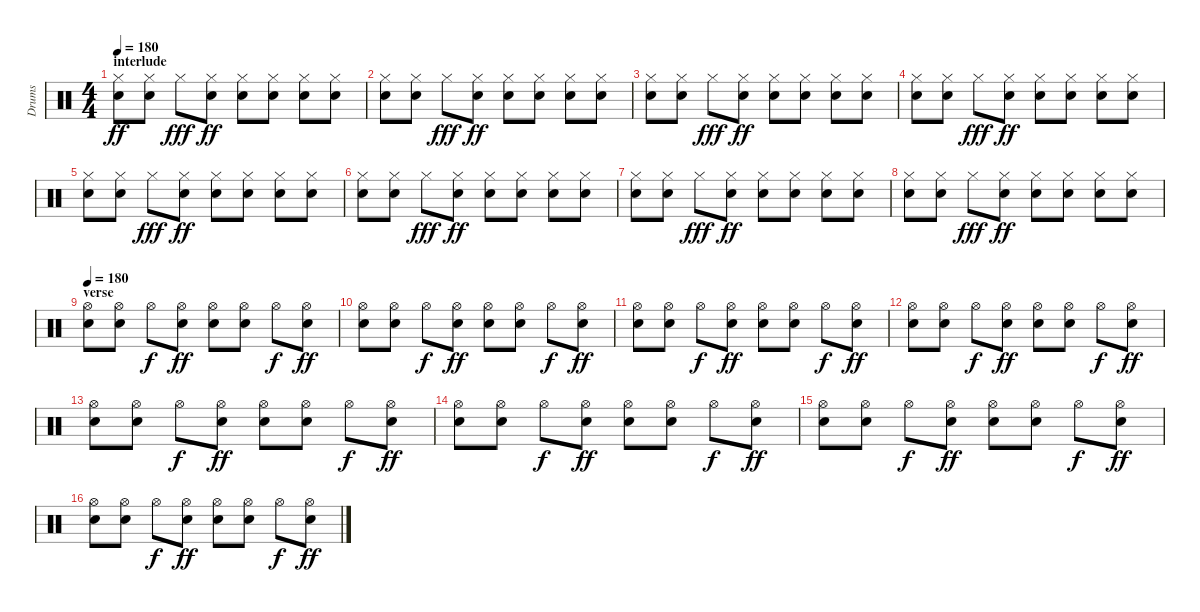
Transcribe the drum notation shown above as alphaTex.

\track ("Drums" "Drums") {instrument percussion}
\staff {score}
\articulation defaults
\ts (4 4)
\section ("" "interlude")
\tempo 180
\clef neutral
\ks c
("Hi-Hat (closed)" "Electric Snare (hit)").8{dy ff} ("Hi-Hat (closed)" "Electric Snare (hit)").8 "Hi-Hat (closed)".8{dy fff} ("Hi-Hat (closed)" "Electric Snare (hit)").8{dy ff} ("Hi-Hat (closed)" "Electric Snare (hit)").8 ("Hi-Hat (closed)" "Electric Snare (hit)").8 ("Hi-Hat (closed)" "Electric Snare (hit)").8 ("Hi-Hat (closed)" "Electric Snare (hit)").8 |
("Hi-Hat (closed)" "Electric Snare (hit)").8 ("Hi-Hat (closed)" "Electric Snare (hit)").8 "Hi-Hat (closed)".8{dy fff} ("Hi-Hat (closed)" "Electric Snare (hit)").8{dy ff} ("Hi-Hat (closed)" "Electric Snare (hit)").8 ("Hi-Hat (closed)" "Electric Snare (hit)").8 ("Hi-Hat (closed)" "Electric Snare (hit)").8 ("Hi-Hat (closed)" "Electric Snare (hit)").8 |
("Hi-Hat (closed)" "Electric Snare (hit)").8 ("Hi-Hat (closed)" "Electric Snare (hit)").8 "Hi-Hat (closed)".8{dy fff} ("Hi-Hat (closed)" "Electric Snare (hit)").8{dy ff} ("Hi-Hat (closed)" "Electric Snare (hit)").8 ("Hi-Hat (closed)" "Electric Snare (hit)").8 ("Hi-Hat (closed)" "Electric Snare (hit)").8 ("Hi-Hat (closed)" "Electric Snare (hit)").8 |
("Hi-Hat (closed)" "Electric Snare (hit)").8 ("Hi-Hat (closed)" "Electric Snare (hit)").8 "Hi-Hat (closed)".8{dy fff} ("Hi-Hat (closed)" "Electric Snare (hit)").8{dy ff} ("Hi-Hat (closed)" "Electric Snare (hit)").8 ("Hi-Hat (closed)" "Electric Snare (hit)").8 ("Hi-Hat (closed)" "Electric Snare (hit)").8 ("Hi-Hat (closed)" "Electric Snare (hit)").8 |
("Hi-Hat (closed)" "Electric Snare (hit)").8 ("Hi-Hat (closed)" "Electric Snare (hit)").8 "Hi-Hat (closed)".8{dy fff} ("Hi-Hat (closed)" "Electric Snare (hit)").8{dy ff} ("Hi-Hat (closed)" "Electric Snare (hit)").8 ("Hi-Hat (closed)" "Electric Snare (hit)").8 ("Hi-Hat (closed)" "Electric Snare (hit)").8 ("Hi-Hat (closed)" "Electric Snare (hit)").8 |
("Hi-Hat (closed)" "Electric Snare (hit)").8 ("Hi-Hat (closed)" "Electric Snare (hit)").8 "Hi-Hat (closed)".8{dy fff} ("Hi-Hat (closed)" "Electric Snare (hit)").8{dy ff} ("Hi-Hat (closed)" "Electric Snare (hit)").8 ("Hi-Hat (closed)" "Electric Snare (hit)").8 ("Hi-Hat (closed)" "Electric Snare (hit)").8 ("Hi-Hat (closed)" "Electric Snare (hit)").8 |
("Hi-Hat (closed)" "Electric Snare (hit)").8 ("Hi-Hat (closed)" "Electric Snare (hit)").8 "Hi-Hat (closed)".8{dy fff} ("Hi-Hat (closed)" "Electric Snare (hit)").8{dy ff} ("Hi-Hat (closed)" "Electric Snare (hit)").8 ("Hi-Hat (closed)" "Electric Snare (hit)").8 ("Hi-Hat (closed)" "Electric Snare (hit)").8 ("Hi-Hat (closed)" "Electric Snare (hit)").8 |
("Hi-Hat (closed)" "Electric Snare (hit)").8 ("Hi-Hat (closed)" "Electric Snare (hit)").8 "Hi-Hat (closed)".8{dy fff} ("Hi-Hat (closed)" "Electric Snare (hit)").8{dy ff} ("Hi-Hat (closed)" "Electric Snare (hit)").8 ("Hi-Hat (closed)" "Electric Snare (hit)").8 ("Hi-Hat (closed)" "Electric Snare (hit)").8 ("Hi-Hat (closed)" "Electric Snare (hit)").8 |
\section ("" "verse")
\tempo 180
("Hi-Hat (open)" "Electric Snare (hit)").8 ("Hi-Hat (open)" "Electric Snare (hit)").8 "Hi-Hat (open)".8{dy f} ("Hi-Hat (open)" "Electric Snare (hit)").8{dy ff} ("Hi-Hat (open)" "Electric Snare (hit)").8 ("Hi-Hat (open)" "Electric Snare (hit)").8 "Hi-Hat (open)".8{dy f} ("Hi-Hat (open)" "Electric Snare (hit)").8{dy ff} |
("Hi-Hat (open)" "Electric Snare (hit)").8 ("Hi-Hat (open)" "Electric Snare (hit)").8 "Hi-Hat (open)".8{dy f} ("Hi-Hat (open)" "Electric Snare (hit)").8{dy ff} ("Hi-Hat (open)" "Electric Snare (hit)").8 ("Hi-Hat (open)" "Electric Snare (hit)").8 "Hi-Hat (open)".8{dy f} ("Hi-Hat (open)" "Electric Snare (hit)").8{dy ff} |
("Hi-Hat (open)" "Electric Snare (hit)").8 ("Hi-Hat (open)" "Electric Snare (hit)").8 "Hi-Hat (open)".8{dy f} ("Hi-Hat (open)" "Electric Snare (hit)").8{dy ff} ("Hi-Hat (open)" "Electric Snare (hit)").8 ("Hi-Hat (open)" "Electric Snare (hit)").8 "Hi-Hat (open)".8{dy f} ("Hi-Hat (open)" "Electric Snare (hit)").8{dy ff} |
("Hi-Hat (open)" "Electric Snare (hit)").8 ("Hi-Hat (open)" "Electric Snare (hit)").8 "Hi-Hat (open)".8{dy f} ("Hi-Hat (open)" "Electric Snare (hit)").8{dy ff} ("Hi-Hat (open)" "Electric Snare (hit)").8 ("Hi-Hat (open)" "Electric Snare (hit)").8 "Hi-Hat (open)".8{dy f} ("Hi-Hat (open)" "Electric Snare (hit)").8{dy ff} |
("Hi-Hat (open)" "Electric Snare (hit)").8 ("Hi-Hat (open)" "Electric Snare (hit)").8 "Hi-Hat (open)".8{dy f} ("Hi-Hat (open)" "Electric Snare (hit)").8{dy ff} ("Hi-Hat (open)" "Electric Snare (hit)").8 ("Hi-Hat (open)" "Electric Snare (hit)").8 "Hi-Hat (open)".8{dy f} ("Hi-Hat (open)" "Electric Snare (hit)").8{dy ff} |
("Hi-Hat (open)" "Electric Snare (hit)").8 ("Hi-Hat (open)" "Electric Snare (hit)").8 "Hi-Hat (open)".8{dy f} ("Hi-Hat (open)" "Electric Snare (hit)").8{dy ff} ("Hi-Hat (open)" "Electric Snare (hit)").8 ("Hi-Hat (open)" "Electric Snare (hit)").8 "Hi-Hat (open)".8{dy f} ("Hi-Hat (open)" "Electric Snare (hit)").8{dy ff} |
("Hi-Hat (open)" "Electric Snare (hit)").8 ("Hi-Hat (open)" "Electric Snare (hit)").8 "Hi-Hat (open)".8{dy f} ("Hi-Hat (open)" "Electric Snare (hit)").8{dy ff} ("Hi-Hat (open)" "Electric Snare (hit)").8 ("Hi-Hat (open)" "Electric Snare (hit)").8 "Hi-Hat (open)".8{dy f} ("Hi-Hat (open)" "Electric Snare (hit)").8{dy ff} |
("Hi-Hat (open)" "Electric Snare (hit)").8 ("Hi-Hat (open)" "Electric Snare (hit)").8 "Hi-Hat (open)".8{dy f} ("Hi-Hat (open)" "Electric Snare (hit)").8{dy ff} ("Hi-Hat (open)" "Electric Snare (hit)").8 ("Hi-Hat (open)" "Electric Snare (hit)").8 "Hi-Hat (open)".8{dy f} ("Hi-Hat (open)" "Electric Snare (hit)").8{dy ff}
